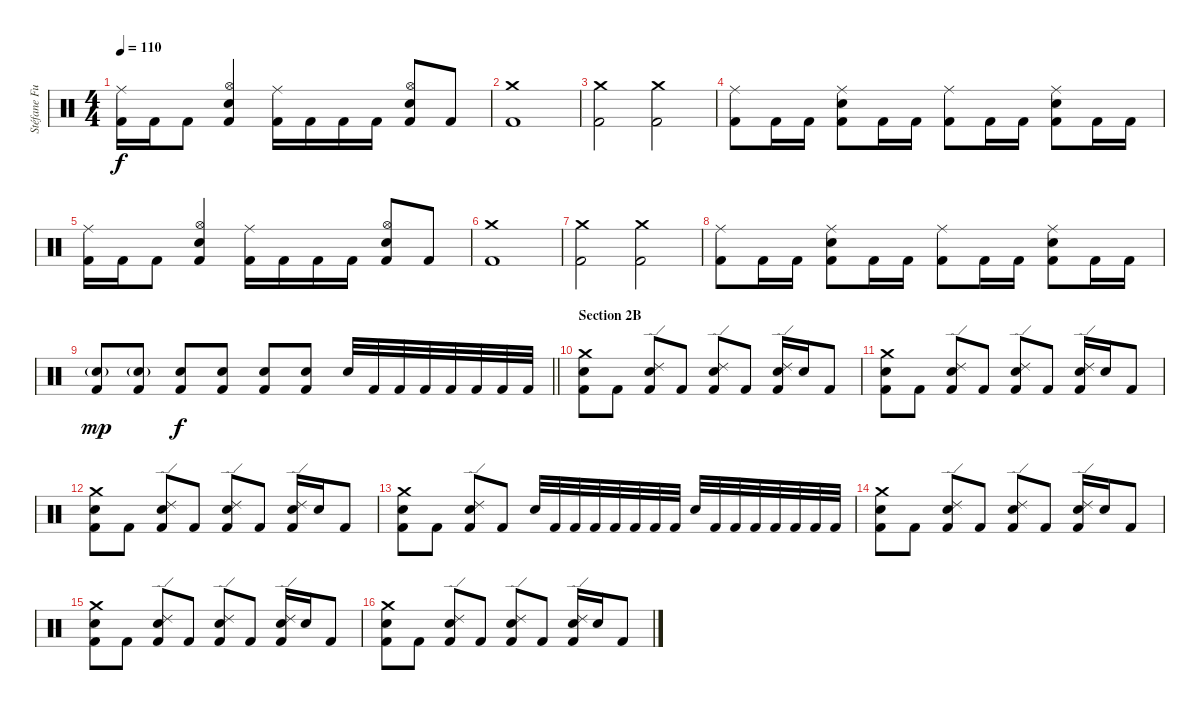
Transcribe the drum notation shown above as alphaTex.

\track ("Stéfane Funebre" "Stéfane Fu") {instrument percussion}
\staff {score}
\articulation defaults
\ts (4 4)
\tempo 110
\clef neutral
\ks c
("Ride (middle)" "Kick (hit) 2").16{dy f} "Kick (hit) 2".16 "Kick (hit) 2".8 ("Hi-Hat (open)" "Snare (hit) 2" "Kick (hit) 2").4 ("Ride (middle)" "Kick (hit) 2").16 "Kick (hit) 2".16 "Kick (hit) 2".16 "Kick (hit) 2".16 ("Hi-Hat (open)" "Snare (hit) 2" "Kick (hit) 2").8 "Kick (hit) 2".8 |
("Crash medium (hit)" "Kick (hit) 2").1 |
("Crash medium (hit)" "Kick (hit) 2").2 ("Crash medium (hit)" "Kick (hit) 2").2 |
("Ride (middle)" "Kick (hit) 2").8 "Kick (hit) 2".16 "Kick (hit) 2".16 ("Ride (middle)" "Snare (hit) 2" "Kick (hit) 2").8 "Kick (hit) 2".16 "Kick (hit) 2".16 ("Ride (middle)" "Kick (hit) 2").8 "Kick (hit) 2".16 "Kick (hit) 2".16 ("Ride (middle)" "Snare (hit) 2" "Kick (hit) 2").8 "Kick (hit) 2".16 "Kick (hit) 2".16 |
("Ride (middle)" "Kick (hit) 2").16 "Kick (hit) 2".16 "Kick (hit) 2".8 ("Hi-Hat (open)" "Snare (hit) 2" "Kick (hit) 2").4 ("Ride (middle)" "Kick (hit) 2").16 "Kick (hit) 2".16 "Kick (hit) 2".16 "Kick (hit) 2".16 ("Hi-Hat (open)" "Snare (hit) 2" "Kick (hit) 2").8 "Kick (hit) 2".8 |
("Crash medium (hit)" "Kick (hit) 2").1 |
("Crash medium (hit)" "Kick (hit) 2").2 ("Crash medium (hit)" "Kick (hit) 2").2 |
("Ride (middle)" "Kick (hit) 2").8 "Kick (hit) 2".16 "Kick (hit) 2".16 ("Ride (middle)" "Snare (hit) 2" "Kick (hit) 2").8 "Kick (hit) 2".16 "Kick (hit) 2".16 ("Ride (middle)" "Kick (hit) 2").8 "Kick (hit) 2".16 "Kick (hit) 2".16 ("Ride (middle)" "Snare (hit) 2" "Kick (hit) 2").8 "Kick (hit) 2".16 "Kick (hit) 2".16 |
\barLineRight lightlight
("Snare (hit) 2"{g} "Kick (hit) 2").8{dy mp} ("Snare (hit) 2"{g} "Kick (hit) 2").8 ("Snare (hit) 2" "Kick (hit) 2").8{dy f} ("Snare (hit) 2" "Kick (hit) 2").8 ("Snare (hit) 2" "Kick (hit) 2").8 ("Snare (hit) 2" "Kick (hit) 2").8 "Snare (hit) 2".32 "Kick (hit) 2".32 "Kick (hit) 2".32 "Kick (hit) 2".32 "Kick (hit) 2".32 "Kick (hit) 2".32 "Kick (hit) 2".32 "Kick (hit) 2".32 |
\section ("" "Section 2B")
("Crash medium (hit)" "Snare (hit) 2" "Kick (hit) 2").8 "Kick (hit) 2".8 ("Ride (edge) 2" "Snare (hit) 2" "Kick (hit) 2").8 "Kick (hit) 2".8 ("Ride (edge) 2" "Snare (hit) 2" "Kick (hit) 2").8 "Kick (hit) 2".8 ("Ride (edge) 2" "Snare (hit) 2" "Kick (hit) 2").16 "Snare (hit) 2".16 "Kick (hit) 2".8 |
("Crash medium (hit)" "Snare (hit) 2" "Kick (hit) 2").8 "Kick (hit) 2".8 ("Ride (edge) 2" "Snare (hit) 2" "Kick (hit) 2").8 "Kick (hit) 2".8 ("Ride (edge) 2" "Snare (hit) 2" "Kick (hit) 2").8 "Kick (hit) 2".8 ("Ride (edge) 2" "Snare (hit) 2" "Kick (hit) 2").16 "Snare (hit) 2".16 "Kick (hit) 2".8 |
("Crash medium (hit)" "Snare (hit) 2" "Kick (hit) 2").8 "Kick (hit) 2".8 ("Ride (edge) 2" "Snare (hit) 2" "Kick (hit) 2").8 "Kick (hit) 2".8 ("Ride (edge) 2" "Snare (hit) 2" "Kick (hit) 2").8 "Kick (hit) 2".8 ("Ride (edge) 2" "Snare (hit) 2" "Kick (hit) 2").16 "Snare (hit) 2".16 "Kick (hit) 2".8 |
("Crash medium (hit)" "Snare (hit) 2" "Kick (hit) 2").8 "Kick (hit) 2".8 ("Ride (edge) 2" "Snare (hit) 2" "Kick (hit) 2").8 "Kick (hit) 2".8 "Snare (hit) 2".32 "Kick (hit) 2".32 "Kick (hit) 2".32 "Kick (hit) 2".32 "Kick (hit) 2".32 "Kick (hit) 2".32 "Kick (hit) 2".32 "Kick (hit) 2".32 "Snare (hit) 2".32 "Kick (hit) 2".32 "Kick (hit) 2".32 "Kick (hit) 2".32 "Kick (hit) 2".32 "Kick (hit) 2".32 "Kick (hit) 2".32 "Kick (hit) 2".32 |
("Crash medium (hit)" "Snare (hit) 2" "Kick (hit) 2").8 "Kick (hit) 2".8 ("Ride (edge) 2" "Snare (hit) 2" "Kick (hit) 2").8 "Kick (hit) 2".8 ("Ride (edge) 2" "Snare (hit) 2" "Kick (hit) 2").8 "Kick (hit) 2".8 ("Ride (edge) 2" "Snare (hit) 2" "Kick (hit) 2").16 "Snare (hit) 2".16 "Kick (hit) 2".8 |
("Crash medium (hit)" "Snare (hit) 2" "Kick (hit) 2").8 "Kick (hit) 2".8 ("Ride (edge) 2" "Snare (hit) 2" "Kick (hit) 2").8 "Kick (hit) 2".8 ("Ride (edge) 2" "Snare (hit) 2" "Kick (hit) 2").8 "Kick (hit) 2".8 ("Ride (edge) 2" "Snare (hit) 2" "Kick (hit) 2").16 "Snare (hit) 2".16 "Kick (hit) 2".8 |
("Crash medium (hit)" "Snare (hit) 2" "Kick (hit) 2").8 "Kick (hit) 2".8 ("Ride (edge) 2" "Snare (hit) 2" "Kick (hit) 2").8 "Kick (hit) 2".8 ("Ride (edge) 2" "Snare (hit) 2" "Kick (hit) 2").8 "Kick (hit) 2".8 ("Ride (edge) 2" "Snare (hit) 2" "Kick (hit) 2").16 "Snare (hit) 2".16 "Kick (hit) 2".8
